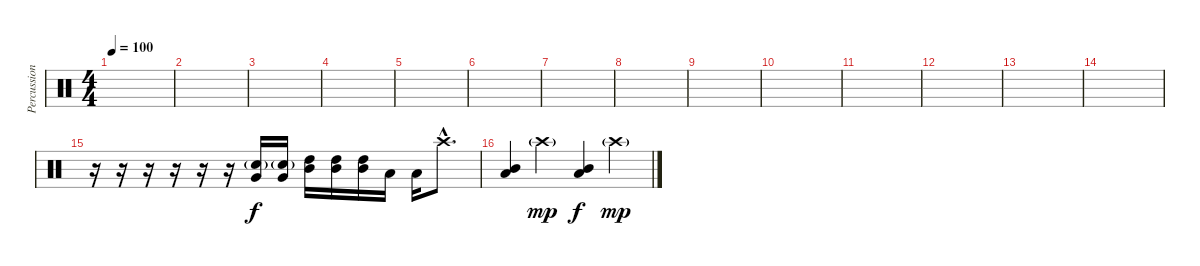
\track ("Percussion" "Percussion") {instrument percussion}
\staff {score}
\articulation defaults
\ts (4 4)
\tempo 100
\clef neutral
\ks c
|
|
|
|
|
|
|
|
|
|
|
|
|
|
r.16 r.16 r.16 r.16 r.16 r.16 ("Electric Snare (hit)"{g} "Very Low Tom (hit)").16 ("Electric Snare (hit)"{g} "Very Low Tom (hit)").16 ("High Tom (hit)" "Mid Tom (hit)").16{dy f} ("High Tom (hit)" "Mid Tom (hit)").16 ("High Tom (hit)" "Mid Tom (hit)").16 "Low Tom (hit)".16 "Low Tom (hit)".16 "Crash high (hit)"{hac}.8{d} |
("Mid Tom (hit)" "Low Tom (hit)").4 "Crash high (hit)"{g}.4{dy mp} ("Mid Tom (hit)" "Low Tom (hit)").4{dy f} "Crash high (hit)"{g}.4{dy mp}
